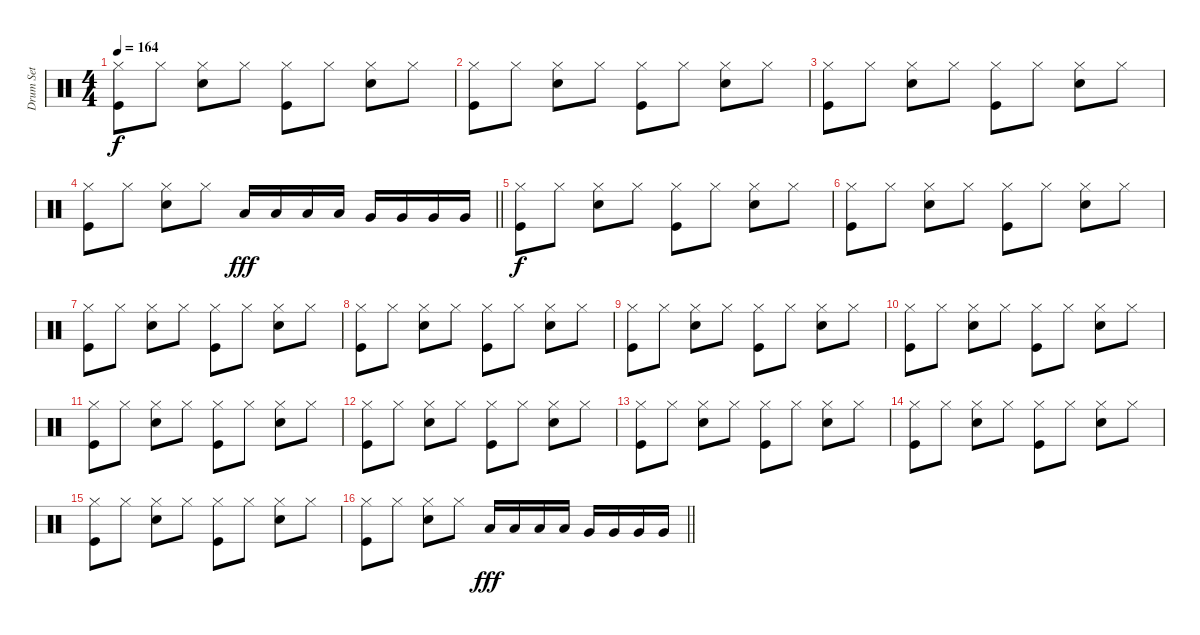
\track ("Drum Set" "Drum Set") {instrument percussion}
\staff {score}
\articulation defaults
\ts (4 4)
\tempo 164
\clef neutral
\ks c
("Kick (hit)" "Hi-Hat (closed)").8{dy f} "Hi-Hat (closed)".8 ("Electric Snare (hit)" "Hi-Hat (closed)").8 "Hi-Hat (closed)".8 ("Kick (hit)" "Hi-Hat (closed)").8 "Hi-Hat (closed)".8 ("Electric Snare (hit)" "Hi-Hat (closed)").8 "Hi-Hat (closed)".8 |
("Kick (hit)" "Hi-Hat (closed)").8 "Hi-Hat (closed)".8 ("Electric Snare (hit)" "Hi-Hat (closed)").8 "Hi-Hat (closed)".8 ("Kick (hit)" "Hi-Hat (closed)").8 "Hi-Hat (closed)".8 ("Electric Snare (hit)" "Hi-Hat (closed)").8 "Hi-Hat (closed)".8 |
("Kick (hit)" "Hi-Hat (closed)").8 "Hi-Hat (closed)".8 ("Electric Snare (hit)" "Hi-Hat (closed)").8 "Hi-Hat (closed)".8 ("Kick (hit)" "Hi-Hat (closed)").8 "Hi-Hat (closed)".8 ("Electric Snare (hit)" "Hi-Hat (closed)").8 "Hi-Hat (closed)".8 |
\barLineRight lightlight
("Kick (hit)" "Hi-Hat (closed)").8 "Hi-Hat (closed)".8 ("Electric Snare (hit)" "Hi-Hat (closed)").8 "Hi-Hat (closed)".8 "Low Tom (hit)".16{dy fff} "Low Tom (hit)".16 "Low Tom (hit)".16 "Low Tom (hit)".16 "Very Low Tom (hit)".16 "Very Low Tom (hit)".16 "Very Low Tom (hit)".16 "Very Low Tom (hit)".16 |
("Kick (hit)" "Hi-Hat (closed)").8{dy f} "Hi-Hat (closed)".8 ("Electric Snare (hit)" "Hi-Hat (closed)").8 "Hi-Hat (closed)".8 ("Kick (hit)" "Hi-Hat (closed)").8 "Hi-Hat (closed)".8 ("Electric Snare (hit)" "Hi-Hat (closed)").8 "Hi-Hat (closed)".8 |
("Kick (hit)" "Hi-Hat (closed)").8 "Hi-Hat (closed)".8 ("Electric Snare (hit)" "Hi-Hat (closed)").8 "Hi-Hat (closed)".8 ("Kick (hit)" "Hi-Hat (closed)").8 "Hi-Hat (closed)".8 ("Electric Snare (hit)" "Hi-Hat (closed)").8 "Hi-Hat (closed)".8 |
("Kick (hit)" "Hi-Hat (closed)").8 "Hi-Hat (closed)".8 ("Electric Snare (hit)" "Hi-Hat (closed)").8 "Hi-Hat (closed)".8 ("Kick (hit)" "Hi-Hat (closed)").8 "Hi-Hat (closed)".8 ("Electric Snare (hit)" "Hi-Hat (closed)").8 "Hi-Hat (closed)".8 |
("Kick (hit)" "Hi-Hat (closed)").8 "Hi-Hat (closed)".8 ("Electric Snare (hit)" "Hi-Hat (closed)").8 "Hi-Hat (closed)".8 ("Kick (hit)" "Hi-Hat (closed)").8 "Hi-Hat (closed)".8 ("Electric Snare (hit)" "Hi-Hat (closed)").8 "Hi-Hat (closed)".8 |
("Kick (hit)" "Hi-Hat (closed)").8 "Hi-Hat (closed)".8 ("Electric Snare (hit)" "Hi-Hat (closed)").8 "Hi-Hat (closed)".8 ("Kick (hit)" "Hi-Hat (closed)").8 "Hi-Hat (closed)".8 ("Electric Snare (hit)" "Hi-Hat (closed)").8 "Hi-Hat (closed)".8 |
("Kick (hit)" "Hi-Hat (closed)").8 "Hi-Hat (closed)".8 ("Electric Snare (hit)" "Hi-Hat (closed)").8 "Hi-Hat (closed)".8 ("Kick (hit)" "Hi-Hat (closed)").8 "Hi-Hat (closed)".8 ("Electric Snare (hit)" "Hi-Hat (closed)").8 "Hi-Hat (closed)".8 |
("Kick (hit)" "Hi-Hat (closed)").8 "Hi-Hat (closed)".8 ("Electric Snare (hit)" "Hi-Hat (closed)").8 "Hi-Hat (closed)".8 ("Kick (hit)" "Hi-Hat (closed)").8 "Hi-Hat (closed)".8 ("Electric Snare (hit)" "Hi-Hat (closed)").8 "Hi-Hat (closed)".8 |
("Kick (hit)" "Hi-Hat (closed)").8 "Hi-Hat (closed)".8 ("Electric Snare (hit)" "Hi-Hat (closed)").8 "Hi-Hat (closed)".8 ("Kick (hit)" "Hi-Hat (closed)").8 "Hi-Hat (closed)".8 ("Electric Snare (hit)" "Hi-Hat (closed)").8 "Hi-Hat (closed)".8 |
("Kick (hit)" "Hi-Hat (closed)").8 "Hi-Hat (closed)".8 ("Electric Snare (hit)" "Hi-Hat (closed)").8 "Hi-Hat (closed)".8 ("Kick (hit)" "Hi-Hat (closed)").8 "Hi-Hat (closed)".8 ("Electric Snare (hit)" "Hi-Hat (closed)").8 "Hi-Hat (closed)".8 |
("Kick (hit)" "Hi-Hat (closed)").8 "Hi-Hat (closed)".8 ("Electric Snare (hit)" "Hi-Hat (closed)").8 "Hi-Hat (closed)".8 ("Kick (hit)" "Hi-Hat (closed)").8 "Hi-Hat (closed)".8 ("Electric Snare (hit)" "Hi-Hat (closed)").8 "Hi-Hat (closed)".8 |
("Kick (hit)" "Hi-Hat (closed)").8 "Hi-Hat (closed)".8 ("Electric Snare (hit)" "Hi-Hat (closed)").8 "Hi-Hat (closed)".8 ("Kick (hit)" "Hi-Hat (closed)").8 "Hi-Hat (closed)".8 ("Electric Snare (hit)" "Hi-Hat (closed)").8 "Hi-Hat (closed)".8 |
\barLineRight lightlight
("Kick (hit)" "Hi-Hat (closed)").8 "Hi-Hat (closed)".8 ("Electric Snare (hit)" "Hi-Hat (closed)").8 "Hi-Hat (closed)".8 "Low Tom (hit)".16{dy fff} "Low Tom (hit)".16 "Low Tom (hit)".16 "Low Tom (hit)".16 "Very Low Tom (hit)".16 "Very Low Tom (hit)".16 "Very Low Tom (hit)".16 "Very Low Tom (hit)".16
